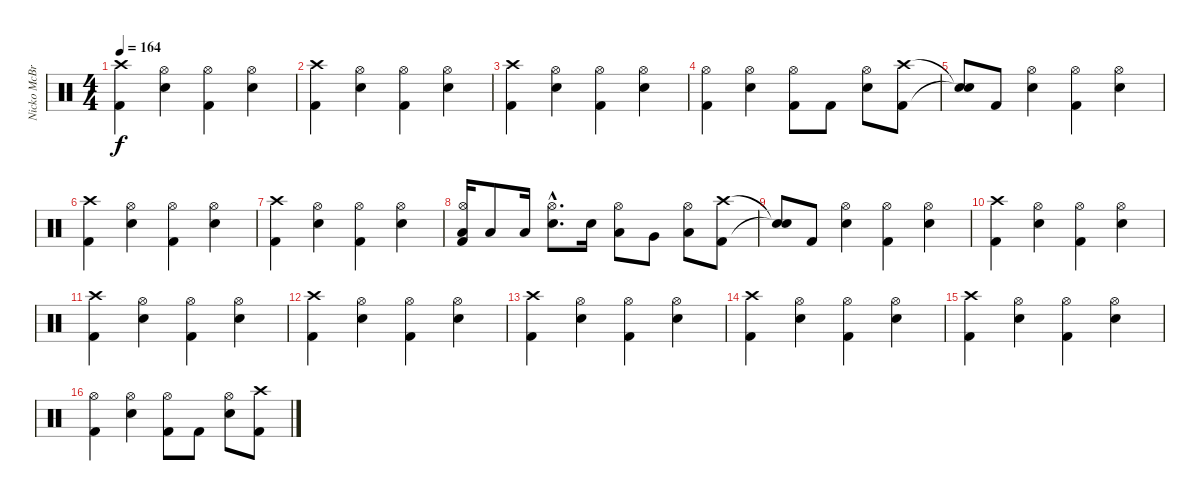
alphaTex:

\track ("Nicko McBrian (Drums)" "Nicko McBr") {instrument percussion}
\staff {score}
\articulation defaults
\ts (4 4)
\tempo 164
\clef neutral
\ks c
("Kick (hit) 2" "Crash high (hit)").4{dy f} ("Snare (hit) 2" "Hi-Hat (open)").4 ("Kick (hit) 2" "Hi-Hat (open)").4 ("Snare (hit) 2" "Hi-Hat (open)").4 |
("Kick (hit) 2" "Crash high (hit)").4 ("Snare (hit) 2" "Hi-Hat (open)").4 ("Kick (hit) 2" "Hi-Hat (open)").4 ("Snare (hit) 2" "Hi-Hat (open)").4 |
("Kick (hit) 2" "Crash high (hit)").4 ("Snare (hit) 2" "Hi-Hat (open)").4 ("Kick (hit) 2" "Hi-Hat (open)").4 ("Snare (hit) 2" "Hi-Hat (open)").4 |
("Kick (hit) 2" "Hi-Hat (open)").4 ("Snare (hit) 2" "Hi-Hat (open)").4 ("Kick (hit) 2" "Hi-Hat (open)").8 "Kick (hit) 2".8 ("Snare (hit) 2" "Hi-Hat (open)").8 ("Kick (hit) 2" "Crash high (hit)").8 |
("Snare (hit)"{t} "Snare (hit)"{t}).8 "Kick (hit) 2".8 ("Snare (hit) 2" "Hi-Hat (open)").4 ("Kick (hit) 2" "Hi-Hat (open)").4 ("Snare (hit) 2" "Hi-Hat (open)").4 |
("Kick (hit) 2" "Crash high (hit)").4 ("Snare (hit) 2" "Hi-Hat (open)").4 ("Kick (hit) 2" "Hi-Hat (open)").4 ("Snare (hit) 2" "Hi-Hat (open)").4 |
("Kick (hit) 2" "Crash high (hit)").4 ("Snare (hit) 2" "Hi-Hat (open)").4 ("Kick (hit) 2" "Hi-Hat (open)").4 ("Snare (hit) 2" "Hi-Hat (open)").4 |
("Kick (hit) 2" "Low Floor Tom (hit)" "Hi-Hat (open)").16 "Low Floor Tom (hit)".8 "Low Floor Tom (hit)".16 ("Snare (hit) 2"{hac} "Hi-Hat (open)"{hac}).8{d} "Snare (hit) 2".16 ("Low Tom (hit)" "Hi-Hat (open)").8 "Very Low Tom (hit)".8 ("Low Floor Tom (hit)" "Hi-Hat (open)").8 ("Kick (hit) 2" "Crash high (hit)").8 |
("Snare (hit)"{t} "Snare (hit)"{t}).8 "Kick (hit) 2".8 ("Snare (hit) 2" "Hi-Hat (open)").4 ("Kick (hit) 2" "Hi-Hat (open)").4 ("Snare (hit) 2" "Hi-Hat (open)").4 |
("Kick (hit) 2" "Crash high (hit)").4 ("Snare (hit) 2" "Hi-Hat (open)").4 ("Kick (hit) 2" "Hi-Hat (open)").4 ("Snare (hit) 2" "Hi-Hat (open)").4 |
("Kick (hit) 2" "Crash high (hit)").4 ("Snare (hit) 2" "Hi-Hat (open)").4 ("Kick (hit) 2" "Hi-Hat (open)").4 ("Snare (hit) 2" "Hi-Hat (open)").4 |
("Kick (hit) 2" "Crash high (hit)").4 ("Snare (hit) 2" "Hi-Hat (open)").4 ("Kick (hit) 2" "Hi-Hat (open)").4 ("Snare (hit) 2" "Hi-Hat (open)").4 |
("Kick (hit) 2" "Crash high (hit)").4 ("Snare (hit) 2" "Hi-Hat (open)").4 ("Kick (hit) 2" "Hi-Hat (open)").4 ("Snare (hit) 2" "Hi-Hat (open)").4 |
("Kick (hit) 2" "Crash high (hit)").4 ("Snare (hit) 2" "Hi-Hat (open)").4 ("Kick (hit) 2" "Hi-Hat (open)").4 ("Snare (hit) 2" "Hi-Hat (open)").4 |
("Kick (hit) 2" "Crash high (hit)").4 ("Snare (hit) 2" "Hi-Hat (open)").4 ("Kick (hit) 2" "Hi-Hat (open)").4 ("Snare (hit) 2" "Hi-Hat (open)").4 |
("Kick (hit) 2" "Hi-Hat (open)").4 ("Snare (hit) 2" "Hi-Hat (open)").4 ("Kick (hit) 2" "Hi-Hat (open)").8 "Kick (hit) 2".8 ("Snare (hit) 2" "Hi-Hat (open)").8 ("Kick (hit) 2" "Crash high (hit)").8
